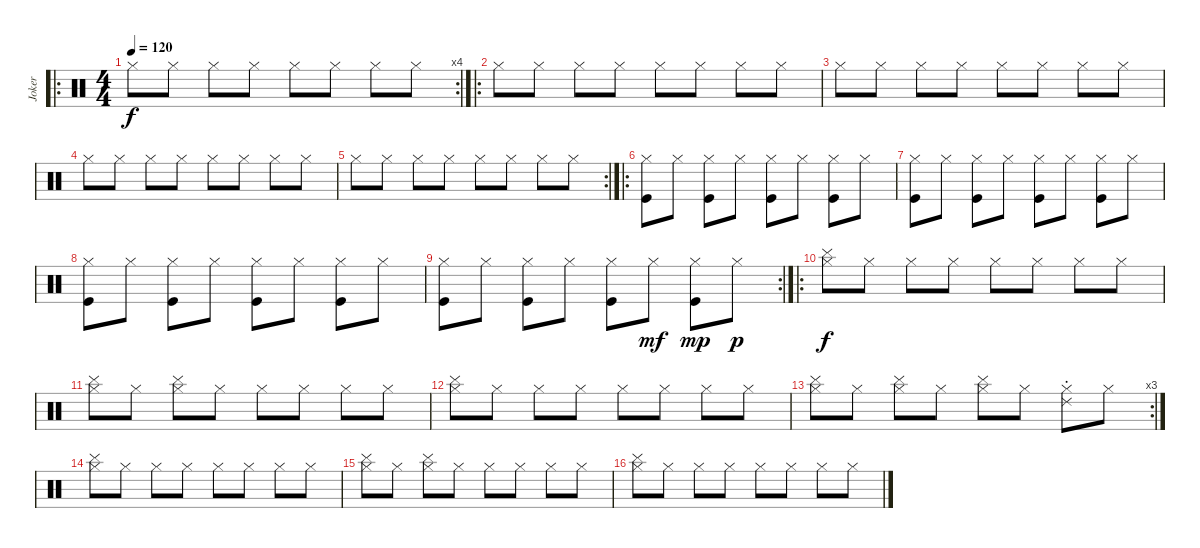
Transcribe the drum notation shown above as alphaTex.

\track ("Joker" "Joker") {instrument percussion}
\staff {score}
\articulation defaults
\ro
\rc 4
\ts (4 4)
\tempo 120
\clef neutral
\ks c "Hi-Hat (closed)".8{dy f} "Hi-Hat (closed)".8 "Hi-Hat (closed)".8 "Hi-Hat (closed)".8 "Hi-Hat (closed)".8 "Hi-Hat (closed)".8 "Hi-Hat (closed)".8 "Hi-Hat (closed)".8
|
\ro "Hi-Hat (closed)".8 "Hi-Hat (closed)".8 "Hi-Hat (closed)".8 "Hi-Hat (closed)".8 "Hi-Hat (closed)".8 "Hi-Hat (closed)".8 "Hi-Hat (closed)".8 "Hi-Hat (closed)".8
|
"Hi-Hat (closed)".8 "Hi-Hat (closed)".8 "Hi-Hat (closed)".8 "Hi-Hat (closed)".8 "Hi-Hat (closed)".8 "Hi-Hat (closed)".8 "Hi-Hat (closed)".8 "Hi-Hat (closed)".8 |
"Hi-Hat (closed)".8 "Hi-Hat (closed)".8 "Hi-Hat (closed)".8 "Hi-Hat (closed)".8 "Hi-Hat (closed)".8 "Hi-Hat (closed)".8 "Hi-Hat (closed)".8 "Hi-Hat (closed)".8 |
\rc 2 "Hi-Hat (closed)".8 "Hi-Hat (closed)".8 "Hi-Hat (closed)".8 "Hi-Hat (closed)".8 "Hi-Hat (closed)".8 "Hi-Hat (closed)".8 "Hi-Hat (closed)".8 "Hi-Hat (closed)".8
|
\ro
("Kick (hit)" "Hi-Hat (closed)").8 "Hi-Hat (closed)".8 ("Kick (hit)" "Hi-Hat (closed)").8 "Hi-Hat (closed)".8 ("Kick (hit)" "Hi-Hat (closed)").8 "Hi-Hat (closed)".8 ("Kick (hit)" "Hi-Hat (closed)").8 "Hi-Hat (closed)".8 |
("Kick (hit)" "Hi-Hat (closed)").8 "Hi-Hat (closed)".8 ("Kick (hit)" "Hi-Hat (closed)").8 "Hi-Hat (closed)".8 ("Kick (hit)" "Hi-Hat (closed)").8 "Hi-Hat (closed)".8 ("Kick (hit)" "Hi-Hat (closed)").8 "Hi-Hat (closed)".8 |
("Kick (hit)" "Hi-Hat (closed)").8 "Hi-Hat (closed)".8 ("Kick (hit)" "Hi-Hat (closed)").8 "Hi-Hat (closed)".8 ("Kick (hit)" "Hi-Hat (closed)").8 "Hi-Hat (closed)".8 ("Kick (hit)" "Hi-Hat (closed)").8 "Hi-Hat (closed)".8 |
\rc 2
("Kick (hit)" "Hi-Hat (closed)").8 "Hi-Hat (closed)".8 ("Kick (hit)" "Hi-Hat (closed)").8 "Hi-Hat (closed)".8 ("Kick (hit)" "Hi-Hat (closed)").8 "Hi-Hat (closed)".8{dy mf} ("Kick (hit)" "Hi-Hat (closed)").8{dy mp} "Hi-Hat (closed)".8{dy p} |
\ro
("Cymbal (hit)" "Hi-Hat (closed)").8{dy f} "Hi-Hat (closed)".8 "Hi-Hat (closed)".8 "Hi-Hat (closed)".8 "Hi-Hat (closed)".8 "Hi-Hat (closed)".8 "Hi-Hat (closed)".8 "Hi-Hat (closed)".8 |
("Cymbal (hit)" "Hi-Hat (closed)").8 "Hi-Hat (closed)".8 ("Cymbal (hit)" "Hi-Hat (closed)").8 "Hi-Hat (closed)".8 "Hi-Hat (closed)".8 "Hi-Hat (closed)".8 "Hi-Hat (closed)".8 "Hi-Hat (closed)".8 |
("Cymbal (hit)" "Hi-Hat (closed)").8 "Hi-Hat (closed)".8 "Hi-Hat (closed)".8 "Hi-Hat (closed)".8 "Hi-Hat (closed)".8 "Hi-Hat (closed)".8 "Hi-Hat (closed)".8 "Hi-Hat (closed)".8 |
\rc 3
("Cymbal (hit)" "Hi-Hat (closed)").8 "Hi-Hat (closed)".8 ("Cymbal (hit)" "Hi-Hat (closed)").8 "Hi-Hat (closed)".8 ("Cymbal (hit)" "Hi-Hat (closed)").8 "Hi-Hat (closed)".8 ("Ride (choke) 2" "Hi-Hat (closed)").8 "Hi-Hat (closed)".8 |
("Cymbal (hit)" "Hi-Hat (closed)").8 "Hi-Hat (closed)".8 "Hi-Hat (closed)".8 "Hi-Hat (closed)".8 "Hi-Hat (closed)".8 "Hi-Hat (closed)".8 "Hi-Hat (closed)".8 "Hi-Hat (closed)".8 |
("Cymbal (hit)" "Hi-Hat (closed)").8 "Hi-Hat (closed)".8 ("Cymbal (hit)" "Hi-Hat (closed)").8 "Hi-Hat (closed)".8 "Hi-Hat (closed)".8 "Hi-Hat (closed)".8 "Hi-Hat (closed)".8 "Hi-Hat (closed)".8 |
("Cymbal (hit)" "Hi-Hat (closed)").8 "Hi-Hat (closed)".8 "Hi-Hat (closed)".8 "Hi-Hat (closed)".8 "Hi-Hat (closed)".8 "Hi-Hat (closed)".8 "Hi-Hat (closed)".8 "Hi-Hat (closed)".8
